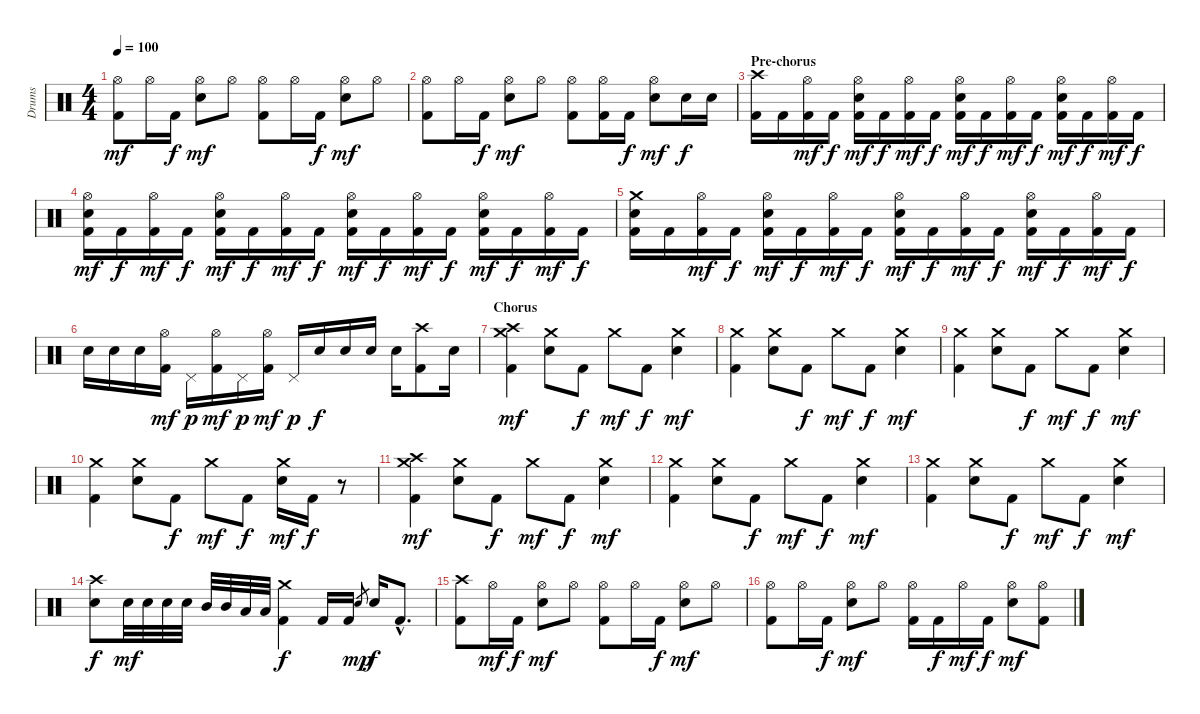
\track ("Drums" "Drums") {instrument percussion}
\staff {score}
\articulation defaults
\ts (4 4)
\tempo 100
\clef neutral
\ks c
("Hi-Hat (open)" "Kick (hit) 2").8{dy mf} "Hi-Hat (open)".16 "Kick (hit) 2".16{dy f} ("Hi-Hat (open)" "Electric Snare (hit)").8{dy mf} "Hi-Hat (open)".8 ("Hi-Hat (open)" "Kick (hit) 2").8 "Hi-Hat (open)".16 "Kick (hit) 2".16{dy f} ("Hi-Hat (open)" "Electric Snare (hit)").8{dy mf} "Hi-Hat (open)".8 |
("Hi-Hat (open)" "Kick (hit) 2").8 "Hi-Hat (open)".16 "Kick (hit) 2".16{dy f} ("Hi-Hat (open)" "Electric Snare (hit)").8{dy mf} "Hi-Hat (open)".8 ("Hi-Hat (open)" "Kick (hit) 2").8 ("Hi-Hat (open)" "Kick (hit) 2").16 "Kick (hit) 2".16{dy f} ("Hi-Hat (open)" "Electric Snare (hit)").8{dy mf} "Electric Snare (hit)".16{dy f} "Electric Snare (hit)".16 |
\section ("" "Pre-chorus")
("Crash high (hit)" "Kick (hit) 2").16 "Kick (hit) 2".16 ("Hi-Hat (open)" "Kick (hit) 2").16{dy mf} "Kick (hit) 2".16{dy f} ("Hi-Hat (open)" "Electric Snare (hit)" "Kick (hit) 2").16{dy mf} "Kick (hit) 2".16{dy f} ("Hi-Hat (open)" "Kick (hit) 2").16{dy mf} "Kick (hit) 2".16{dy f} ("Hi-Hat (open)" "Electric Snare (hit)" "Kick (hit) 2").16{dy mf} "Kick (hit) 2".16{dy f} ("Hi-Hat (open)" "Kick (hit) 2").16{dy mf} "Kick (hit) 2".16{dy f} ("Hi-Hat (open)" "Electric Snare (hit)" "Kick (hit) 2").16{dy mf} "Kick (hit) 2".16{dy f} ("Hi-Hat (open)" "Kick (hit) 2").16{dy mf} "Kick (hit) 2".16{dy f} |
("Hi-Hat (open)" "Electric Snare (hit)" "Kick (hit) 2").16{dy mf} "Kick (hit) 2".16{dy f} ("Hi-Hat (open)" "Kick (hit) 2").16{dy mf} "Kick (hit) 2".16{dy f} ("Hi-Hat (open)" "Electric Snare (hit)" "Kick (hit) 2").16{dy mf} "Kick (hit) 2".16{dy f} ("Hi-Hat (open)" "Kick (hit) 2").16{dy mf} "Kick (hit) 2".16{dy f} ("Hi-Hat (open)" "Electric Snare (hit)" "Kick (hit) 2").16{dy mf} "Kick (hit) 2".16{dy f} ("Hi-Hat (open)" "Kick (hit) 2").16{dy mf} "Kick (hit) 2".16{dy f} ("Hi-Hat (open)" "Electric Snare (hit)" "Kick (hit) 2").16{dy mf} "Kick (hit) 2".16{dy f} ("Hi-Hat (open)" "Kick (hit) 2").16{dy mf} "Kick (hit) 2".16{dy f} |
("Crash medium (hit)" "Electric Snare (hit)" "Kick (hit) 2").16 "Kick (hit) 2".16 ("Hi-Hat (open)" "Kick (hit) 2").16{dy mf} "Kick (hit) 2".16{dy f} ("Hi-Hat (open)" "Electric Snare (hit)" "Kick (hit) 2").16{dy mf} "Kick (hit) 2".16{dy f} ("Hi-Hat (open)" "Kick (hit) 2").16{dy mf} "Kick (hit) 2".16{dy f} ("Hi-Hat (open)" "Electric Snare (hit)" "Kick (hit) 2").16{dy mf} "Kick (hit) 2".16{dy f} ("Hi-Hat (open)" "Kick (hit) 2").16{dy mf} "Kick (hit) 2".16{dy f} ("Hi-Hat (open)" "Electric Snare (hit)" "Kick (hit) 2").16{dy mf} "Kick (hit) 2".16{dy f} ("Hi-Hat (open)" "Kick (hit) 2").16{dy mf} "Kick (hit) 2".16{dy f} |
"Electric Snare (hit)".16 "Electric Snare (hit)".16 "Electric Snare (hit)".16 ("Hi-Hat (open)" "Kick (hit) 2").16{dy mf} "Pedal Hi-Hat (hit)".16{dy p} ("Hi-Hat (open)" "Kick (hit) 2").16{dy mf} "Pedal Hi-Hat (hit)".16{dy p} ("Hi-Hat (open)" "Kick (hit) 2").16{dy mf} "Pedal Hi-Hat (hit)".16{dy p} "Electric Snare (hit)".16{dy f} "Electric Snare (hit)".16 "Electric Snare (hit)".16 "Electric Snare (hit)".16 ("Crash high (hit)" "Kick (hit) 2").8 "Electric Snare (hit)".16 |
\section ("" "Chorus")
("Crash medium (hit)" "Crash high (hit)" "Kick (hit) 2").4{dy mf} ("Crash medium (hit)" "Electric Snare (hit)").8 "Kick (hit) 2".8{dy f} "Crash medium (hit)".8{dy mf} "Kick (hit) 2".8{dy f} ("Crash medium (hit)" "Electric Snare (hit)").4{dy mf} |
("Crash medium (hit)" "Kick (hit) 2").4 ("Crash medium (hit)" "Electric Snare (hit)").8 "Kick (hit) 2".8{dy f} "Crash medium (hit)".8{dy mf} "Kick (hit) 2".8{dy f} ("Crash medium (hit)" "Electric Snare (hit)").4{dy mf} |
("Crash medium (hit)" "Kick (hit) 2").4 ("Crash medium (hit)" "Electric Snare (hit)").8 "Kick (hit) 2".8{dy f} "Crash medium (hit)".8{dy mf} "Kick (hit) 2".8{dy f} ("Crash medium (hit)" "Electric Snare (hit)").4{dy mf} |
("Crash medium (hit)" "Kick (hit) 2").4 ("Crash medium (hit)" "Electric Snare (hit)").8 "Kick (hit) 2".8{dy f} "Crash medium (hit)".8{dy mf} "Kick (hit) 2".8{dy f} ("Crash medium (hit)" "Electric Snare (hit)").16{dy mf} "Kick (hit) 2".16{dy f} r.8 |
("Crash medium (hit)" "Crash high (hit)" "Kick (hit) 2").4{dy mf} ("Crash medium (hit)" "Electric Snare (hit)").8 "Kick (hit) 2".8{dy f} "Crash medium (hit)".8{dy mf} "Kick (hit) 2".8{dy f} ("Crash medium (hit)" "Electric Snare (hit)").4{dy mf} |
("Crash medium (hit)" "Kick (hit) 2").4 ("Crash medium (hit)" "Electric Snare (hit)").8 "Kick (hit) 2".8{dy f} "Crash medium (hit)".8{dy mf} "Kick (hit) 2".8{dy f} ("Crash medium (hit)" "Electric Snare (hit)").4{dy mf} |
("Crash medium (hit)" "Kick (hit) 2").4 ("Crash medium (hit)" "Electric Snare (hit)").8 "Kick (hit) 2".8{dy f} "Crash medium (hit)".8{dy mf} "Kick (hit) 2".8{dy f} ("Crash medium (hit)" "Electric Snare (hit)").4{dy mf} |
("Crash high (hit)" "Electric Snare (hit)").8{dy f} "Electric Snare (hit)".32{dy mf} "Electric Snare (hit)".32 "Electric Snare (hit)".32 "Electric Snare (hit)".32 "Mid Tom (hit)".32 "Mid Tom (hit)".32 "Low Tom (hit)".32 "Low Tom (hit)".32 ("Crash medium (hit)" "Kick (hit) 2").4{dy f} "Kick (hit) 2".16 "Kick (hit) 2".16 "Electric Snare (hit)".8{gr dy mp} "Electric Snare (hit)".16{dy f} "Kick (hit) 2"{hac}.8{d} |
("Crash high (hit)" "Kick (hit) 2").8 "Hi-Hat (open)".16{dy mf} "Kick (hit) 2".16{dy f} ("Hi-Hat (open)" "Electric Snare (hit)").8{dy mf} "Hi-Hat (open)".8 ("Hi-Hat (open)" "Kick (hit) 2").8 "Hi-Hat (open)".16 "Kick (hit) 2".16{dy f} ("Hi-Hat (open)" "Electric Snare (hit)").8{dy mf} "Hi-Hat (open)".8 |
("Hi-Hat (open)" "Kick (hit) 2").8 "Hi-Hat (open)".16 "Kick (hit) 2".16{dy f} ("Hi-Hat (open)" "Electric Snare (hit)").8{dy mf} "Hi-Hat (open)".8 ("Hi-Hat (open)" "Kick (hit) 2").16 "Kick (hit) 2".16{dy f} "Hi-Hat (open)".16{dy mf} "Kick (hit) 2".16{dy f} ("Hi-Hat (open)" "Electric Snare (hit)").8{dy mf} ("Hi-Hat (open)" "Kick (hit) 2").8
